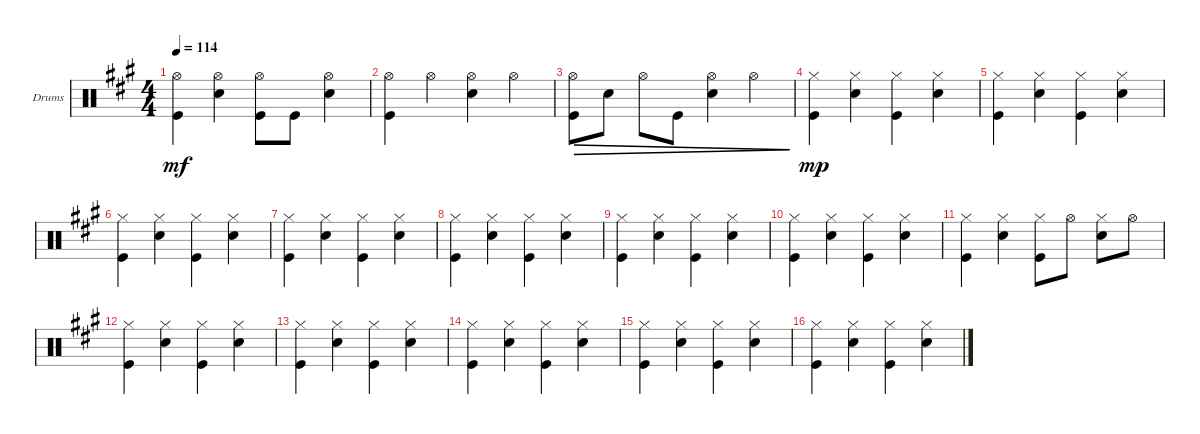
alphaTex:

\defaultSystemsLayout 4
\bracketExtendMode groupsimilarinstruments
\firstSystemTrackNameOrientation horizontal
\otherSystemsTrackNameOrientation horizontal
\track ("Drumkit" "Drums") {instrument percussion}
\staff {score}
\articulation defaults
\ts (4 4)
\tempo 114
\clef neutral
\ks f#minor
("Hi-Hat (open)" "Kick (hit)").4{dy mf} ("Hi-Hat (open)" "Snare (hit) 2").4 ("Hi-Hat (open)" "Kick (hit)").8 "Kick (hit)".8 ("Hi-Hat (open)" "Snare (hit) 2").4 |
("Hi-Hat (open)" "Kick (hit)").4 "Hi-Hat (open)".4 ("Hi-Hat (open)" "Snare (hit) 2").4 "Hi-Hat (open)".4 |
("Hi-Hat (open)" "Kick (hit)").8{dec} "Snare (hit) 2".8{dec} "Hi-Hat (open)".8{dec} "Kick (hit)".8{dec} ("Snare (hit) 2" "Hi-Hat (open)").4{dec} "Hi-Hat (open)".4{dec} |
("Hi-Hat (closed)" "Kick (hit)").4{dy mp} ("Hi-Hat (closed)" "Snare (hit) 2").4 ("Hi-Hat (closed)" "Kick (hit)").4 ("Hi-Hat (closed)" "Snare (hit) 2").4 |
("Hi-Hat (closed)" "Kick (hit)").4 ("Hi-Hat (closed)" "Snare (hit) 2").4 ("Hi-Hat (closed)" "Kick (hit)").4 ("Hi-Hat (closed)" "Snare (hit) 2").4 |
("Hi-Hat (closed)" "Kick (hit)").4 ("Hi-Hat (closed)" "Snare (hit) 2").4 ("Hi-Hat (closed)" "Kick (hit)").4 ("Hi-Hat (closed)" "Snare (hit) 2").4 |
("Hi-Hat (closed)" "Kick (hit)").4 ("Hi-Hat (closed)" "Snare (hit) 2").4 ("Hi-Hat (closed)" "Kick (hit)").4 ("Hi-Hat (closed)" "Snare (hit) 2").4 |
("Hi-Hat (closed)" "Kick (hit)").4 ("Hi-Hat (closed)" "Snare (hit) 2").4 ("Hi-Hat (closed)" "Kick (hit)").4 ("Hi-Hat (closed)" "Snare (hit) 2").4 |
("Hi-Hat (closed)" "Kick (hit)").4 ("Hi-Hat (closed)" "Snare (hit) 2").4 ("Hi-Hat (closed)" "Kick (hit)").4 ("Hi-Hat (closed)" "Snare (hit) 2").4 |
("Hi-Hat (closed)" "Kick (hit)").4 ("Hi-Hat (closed)" "Snare (hit) 2").4 ("Hi-Hat (closed)" "Kick (hit)").4 ("Hi-Hat (closed)" "Snare (hit) 2").4 |
("Hi-Hat (closed)" "Kick (hit)").4 ("Hi-Hat (closed)" "Snare (hit) 2").4 ("Hi-Hat (closed)" "Kick (hit)").8 "Hi-Hat (open)".8 ("Hi-Hat (closed)" "Snare (hit) 2").8 "Hi-Hat (open)".8 |
("Hi-Hat (closed)" "Kick (hit)").4 ("Hi-Hat (closed)" "Snare (hit) 2").4 ("Hi-Hat (closed)" "Kick (hit)").4 ("Hi-Hat (closed)" "Snare (hit) 2").4 |
("Hi-Hat (closed)" "Kick (hit)").4 ("Hi-Hat (closed)" "Snare (hit) 2").4 ("Hi-Hat (closed)" "Kick (hit)").4 ("Hi-Hat (closed)" "Snare (hit) 2").4 |
("Hi-Hat (closed)" "Kick (hit)").4 ("Hi-Hat (closed)" "Snare (hit) 2").4 ("Hi-Hat (closed)" "Kick (hit)").4 ("Hi-Hat (closed)" "Snare (hit) 2").4 |
("Hi-Hat (closed)" "Kick (hit)").4 ("Hi-Hat (closed)" "Snare (hit) 2").4 ("Hi-Hat (closed)" "Kick (hit)").4 ("Hi-Hat (closed)" "Snare (hit) 2").4 |
("Hi-Hat (closed)" "Kick (hit)").4 ("Hi-Hat (closed)" "Snare (hit) 2").4 ("Hi-Hat (closed)" "Kick (hit)").4 ("Hi-Hat (closed)" "Snare (hit) 2").4
